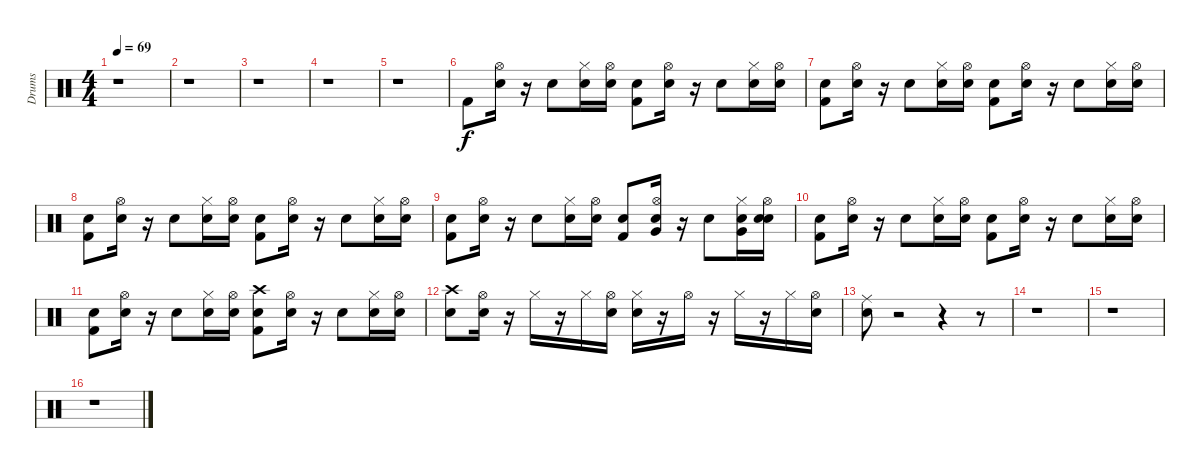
\track ("Drums" "Drums") {instrument percussion}
\staff {score}
\articulation defaults
\ts (4 4)
\tempo 69
\clef neutral
\ks c
r.1{dy f} |
r.1 |
r.1 |
r.1 |
r.1 |
"Kick (hit) 2".8 ("Snare (hit)" "Hi-Hat (open)").16 r.16 "Snare (hit) 2".8 ("Snare (hit)" "Hi-Hat (closed)").16 ("Snare (hit)" "Hi-Hat (open)").16 ("Snare (hit)" "Kick (hit) 2").8 ("Snare (hit)" "Hi-Hat (open)").16 r.16 "Snare (hit) 2".8 ("Snare (hit)" "Hi-Hat (closed)").16 ("Snare (hit)" "Hi-Hat (open)").16 |
("Snare (hit)" "Kick (hit) 2").8 ("Snare (hit)" "Hi-Hat (open)").16 r.16 "Snare (hit) 2".8 ("Snare (hit)" "Hi-Hat (closed)").16 ("Snare (hit)" "Hi-Hat (open)").16 ("Snare (hit)" "Kick (hit) 2").8 ("Snare (hit)" "Hi-Hat (open)").16 r.16 "Snare (hit) 2".8 ("Snare (hit)" "Hi-Hat (closed)").16 ("Snare (hit)" "Hi-Hat (open)").16 |
("Snare (hit)" "Kick (hit) 2").8 ("Snare (hit)" "Hi-Hat (open)").16 r.16 "Snare (hit) 2".8 ("Snare (hit)" "Hi-Hat (closed)").16 ("Snare (hit)" "Hi-Hat (open)").16 ("Snare (hit)" "Kick (hit) 2").8 ("Snare (hit)" "Hi-Hat (open)").16 r.16 "Snare (hit) 2".8 ("Snare (hit)" "Hi-Hat (closed)").16 ("Snare (hit)" "Hi-Hat (open)").16 |
("Snare (hit)" "Kick (hit) 2").8 ("Snare (hit)" "Hi-Hat (open)").16 r.16 "Snare (hit) 2".8 ("Snare (hit)" "Hi-Hat (closed)").16 ("Snare (hit)" "Hi-Hat (open)").16 ("Snare (hit)" "Kick (hit) 2").8 ("Snare (hit)" "Very Low Tom (hit)" "Hi-Hat (open)").16 r.16 "Snare (hit) 2".8 ("Snare (hit)" "Very Low Tom (hit)" "Hi-Hat (closed)").16 ("Snare (hit)" "Snare (hit) 2" "Hi-Hat (open)").16 |
("Snare (hit)" "Kick (hit) 2").8 ("Snare (hit)" "Hi-Hat (open)").16 r.16 "Snare (hit) 2".8 ("Snare (hit)" "Hi-Hat (closed)").16 ("Snare (hit)" "Hi-Hat (open)").16 ("Snare (hit)" "Kick (hit) 2").8 ("Snare (hit)" "Hi-Hat (open)").16 r.16 "Snare (hit) 2".8 ("Snare (hit)" "Hi-Hat (closed)").16 ("Snare (hit)" "Hi-Hat (open)").16 |
("Snare (hit)" "Kick (hit) 2").8 ("Snare (hit)" "Hi-Hat (open)").16 r.16 "Snare (hit) 2".8 ("Snare (hit)" "Hi-Hat (closed)").16 ("Snare (hit)" "Hi-Hat (open)").16 ("Snare (hit)" "Crash high (hit)" "Kick (hit) 2").8 ("Snare (hit)" "Hi-Hat (open)").16 r.16 "Snare (hit) 2".8 ("Snare (hit)" "Hi-Hat (closed)").16 ("Snare (hit)" "Hi-Hat (open)").16 |
("Snare (hit)" "Crash high (hit)").8 ("Snare (hit)" "Hi-Hat (open)").16 r.16 "Hi-Hat (closed)".16 r.16 "Hi-Hat (closed)".16 ("Snare (hit)" "Hi-Hat (open)").16 ("Snare (hit)" "Hi-Hat (closed)").16 r.16 "Hi-Hat (open)".16 r.16 "Hi-Hat (closed)".16 r.16 "Hi-Hat (closed)".16 ("Snare (hit)" "Hi-Hat (open)").16 |
("Snare (hit)" "Ride (middle)").8 r.2 r.4 r.8 |
r.1 |
r.1 |
r.1
